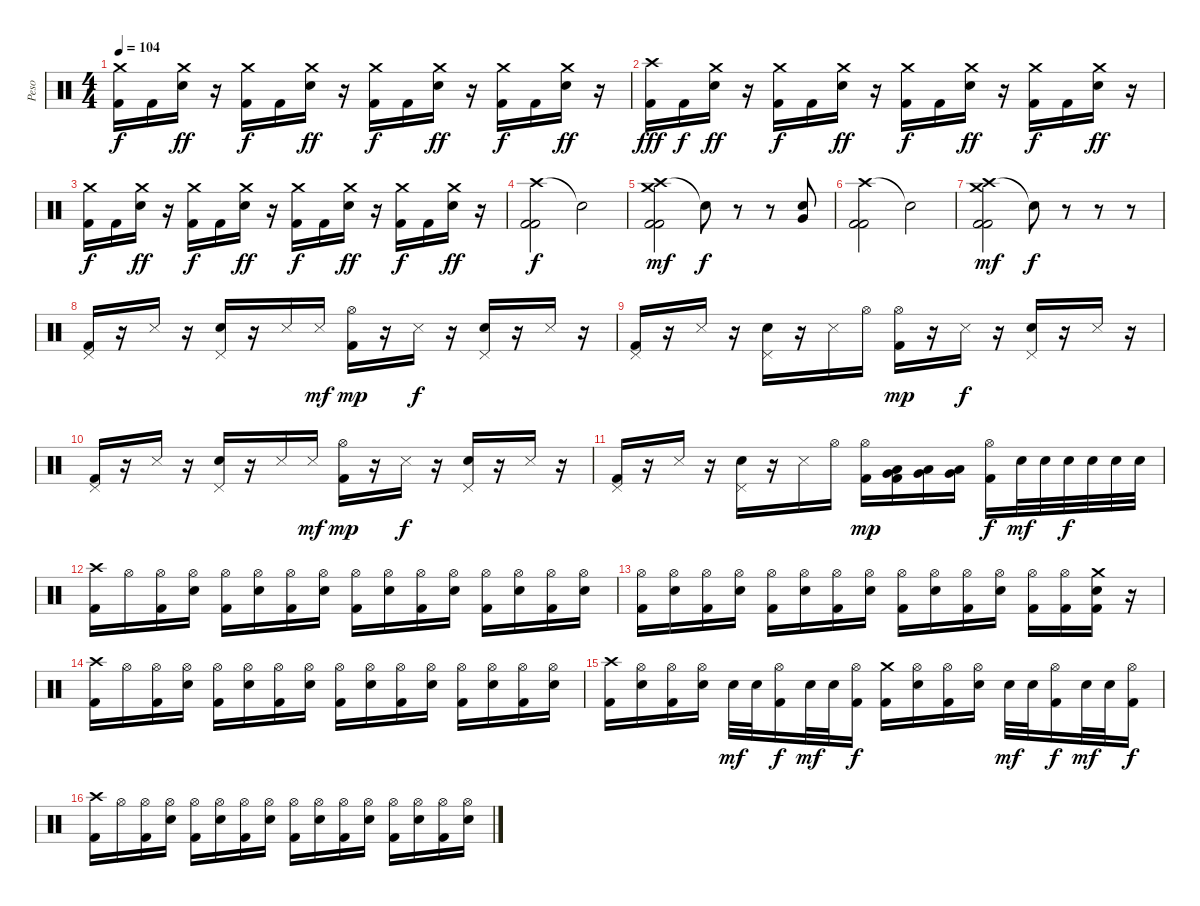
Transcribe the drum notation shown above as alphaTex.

\track ("Peso" "Peso") {instrument percussion}
\staff {score}
\articulation defaults
\ts (4 4)
\tempo 104
\clef neutral
\ks c
("Crash medium (hit)" "Kick (hit) 2").16{dy f} "Kick (hit) 2".16 ("Crash medium (hit)" "Electric Snare (hit)").16{dy ff} r.16 ("Crash medium (hit)" "Kick (hit) 2").16{dy f} "Kick (hit) 2".16 ("Crash medium (hit)" "Electric Snare (hit)").16{dy ff} r.16 ("Crash medium (hit)" "Kick (hit) 2").16{dy f} "Kick (hit) 2".16 ("Crash medium (hit)" "Electric Snare (hit)").16{dy ff} r.16 ("Crash medium (hit)" "Kick (hit) 2").16{dy f} "Kick (hit) 2".16 ("Crash medium (hit)" "Electric Snare (hit)").16{dy ff} r.16 |
("Crash high (hit)" "Kick (hit) 2").16{dy fff} "Kick (hit) 2".16{dy f} ("Crash medium (hit)" "Electric Snare (hit)").16{dy ff} r.16 ("Crash medium (hit)" "Kick (hit) 2").16{dy f} "Kick (hit) 2".16 ("Crash medium (hit)" "Electric Snare (hit)").16{dy ff} r.16 ("Crash medium (hit)" "Kick (hit) 2").16{dy f} "Kick (hit) 2".16 ("Crash medium (hit)" "Electric Snare (hit)").16{dy ff} r.16 ("Crash medium (hit)" "Kick (hit) 2").16{dy f} "Kick (hit) 2".16 ("Crash medium (hit)" "Electric Snare (hit)").16{dy ff} r.16 |
("Crash medium (hit)" "Kick (hit) 2").16{dy f} "Kick (hit) 2".16 ("Crash medium (hit)" "Electric Snare (hit)").16{dy ff} r.16 ("Crash medium (hit)" "Kick (hit) 2").16{dy f} "Kick (hit) 2".16 ("Crash medium (hit)" "Electric Snare (hit)").16{dy ff} r.16 ("Crash medium (hit)" "Kick (hit) 2").16{dy f} "Kick (hit) 2".16 ("Crash medium (hit)" "Electric Snare (hit)").16{dy ff} r.16 ("Crash medium (hit)" "Kick (hit) 2").16{dy f} "Kick (hit) 2".16 ("Crash medium (hit)" "Electric Snare (hit)").16{dy ff} r.16 |
("Crash high (hit)" "Kick (hit) 2" "Kick (hit) 2").2{dy f} "Snare (hit)"{t}.2 |
("Crash high (hit)" "Crash medium (hit)" "Kick (hit) 2" "Kick (hit) 2").2{dy mf} "Snare (hit)"{t}.8{dy f} r.8 r.8 ("Electric Snare (hit)" "Very Low Tom (hit)").8 |
("Crash high (hit)" "Kick (hit) 2" "Kick (hit) 2").2 "Snare (hit)"{t}.2 |
("Crash high (hit)" "Crash medium (hit)" "Kick (hit) 2" "Kick (hit) 2").2{dy mf} "Snare (hit)"{t}.8{dy f} r.8 r.8 r.8 |
("Pedal Hi-Hat (hit)" "Kick (hit) 2").16 r.16 "Metronome (hit)".16 r.16 ("Pedal Hi-Hat (hit)" "Electric Snare (hit)").16 r.16 "Metronome (hit)".16 "Metronome (hit)".16{dy mf} ("Hi-Hat (open)" "Kick (hit) 2").16{dy mp} r.16 "Metronome (hit)".16{dy f} r.16 ("Pedal Hi-Hat (hit)" "Electric Snare (hit)").16 r.16 "Metronome (hit)".16 r.16 |
("Pedal Hi-Hat (hit)" "Kick (hit) 2").16 r.16 "Metronome (hit)".16 r.16 ("Pedal Hi-Hat (hit)" "Electric Snare (hit)").16 r.16 "Metronome (hit)".16 "Hi-Hat (open)".16 ("Hi-Hat (open)" "Kick (hit) 2").16{dy mp} r.16 "Metronome (hit)".16{dy f} r.16 ("Pedal Hi-Hat (hit)" "Electric Snare (hit)").16 r.16 "Metronome (hit)".16 r.16 |
("Pedal Hi-Hat (hit)" "Kick (hit) 2").16 r.16 "Metronome (hit)".16 r.16 ("Pedal Hi-Hat (hit)" "Electric Snare (hit)").16 r.16 "Metronome (hit)".16 "Metronome (hit)".16{dy mf} ("Hi-Hat (open)" "Kick (hit) 2").16{dy mp} r.16 "Metronome (hit)".16{dy f} r.16 ("Pedal Hi-Hat (hit)" "Electric Snare (hit)").16 r.16 "Metronome (hit)".16 r.16 |
("Pedal Hi-Hat (hit)" "Kick (hit) 2").16 r.16 "Metronome (hit)".16 r.16 ("Pedal Hi-Hat (hit)" "Electric Snare (hit)").16 r.16 "Metronome (hit)".16 "Hi-Hat (open)".16 ("Hi-Hat (open)" "Kick (hit) 2").16{dy mp} ("Low Tom (hit)" "Very Low Tom (hit)" "Kick (hit) 2").16 ("Low Tom (hit)" "Very Low Tom (hit)").16 ("Low Tom (hit)" "Very Low Tom (hit)").16 ("Hi-Hat (open)" "Kick (hit) 2").16{dy f} "Electric Snare (hit)".32{dy mf} "Electric Snare (hit)".32 "Electric Snare (hit)".32{dy f} "Electric Snare (hit)".32 "Electric Snare (hit)".32 "Electric Snare (hit)".32 |
("Crash high (hit)" "Kick (hit) 2").16 "Hi-Hat (open)".16 ("Hi-Hat (open)" "Kick (hit) 2").16 ("Hi-Hat (open)" "Electric Snare (hit)").16 ("Hi-Hat (open)" "Kick (hit) 2").16 ("Hi-Hat (open)" "Electric Snare (hit)").16 ("Hi-Hat (open)" "Kick (hit) 2").16 ("Hi-Hat (open)" "Electric Snare (hit)").16 ("Hi-Hat (open)" "Kick (hit) 2").16 ("Hi-Hat (open)" "Electric Snare (hit)").16 ("Hi-Hat (open)" "Kick (hit) 2").16 ("Hi-Hat (open)" "Electric Snare (hit)").16 ("Hi-Hat (open)" "Kick (hit) 2").16 ("Hi-Hat (open)" "Electric Snare (hit)").16 ("Hi-Hat (open)" "Kick (hit) 2").16 ("Hi-Hat (open)" "Electric Snare (hit)").16 |
("Hi-Hat (open)" "Kick (hit) 2").16 ("Hi-Hat (open)" "Electric Snare (hit)").16 ("Hi-Hat (open)" "Kick (hit) 2").16 ("Hi-Hat (open)" "Electric Snare (hit)").16 ("Hi-Hat (open)" "Kick (hit) 2").16 ("Hi-Hat (open)" "Electric Snare (hit)").16 ("Hi-Hat (open)" "Kick (hit) 2").16 ("Hi-Hat (open)" "Electric Snare (hit)").16 ("Hi-Hat (open)" "Kick (hit) 2").16 ("Hi-Hat (open)" "Electric Snare (hit)").16 ("Hi-Hat (open)" "Kick (hit) 2").16 ("Hi-Hat (open)" "Electric Snare (hit)").16 ("Hi-Hat (open)" "Kick (hit) 2").16 ("Hi-Hat (open)" "Kick (hit) 2").16 ("Crash medium (hit)" "Electric Snare (hit)" "Kick (hit) 2").16 r.16 |
("Crash high (hit)" "Kick (hit) 2").16 "Hi-Hat (open)".16 ("Hi-Hat (open)" "Kick (hit) 2").16 ("Hi-Hat (open)" "Electric Snare (hit)").16 ("Hi-Hat (open)" "Kick (hit) 2").16 ("Hi-Hat (open)" "Electric Snare (hit)").16 ("Hi-Hat (open)" "Kick (hit) 2").16 ("Hi-Hat (open)" "Electric Snare (hit)").16 ("Hi-Hat (open)" "Kick (hit) 2").16 ("Hi-Hat (open)" "Electric Snare (hit)").16 ("Hi-Hat (open)" "Kick (hit) 2").16 ("Hi-Hat (open)" "Electric Snare (hit)").16 ("Hi-Hat (open)" "Kick (hit) 2").16 ("Hi-Hat (open)" "Electric Snare (hit)").16 ("Hi-Hat (open)" "Kick (hit) 2").16 ("Hi-Hat (open)" "Electric Snare (hit)").16 |
("Crash high (hit)" "Kick (hit) 2").16 ("Hi-Hat (open)" "Electric Snare (hit)").16 ("Hi-Hat (open)" "Kick (hit) 2").16 ("Hi-Hat (open)" "Electric Snare (hit)").16 "Electric Snare (hit)".32{dy mf} "Electric Snare (hit)".32 ("Hi-Hat (open)" "Kick (hit) 2").16{dy f} "Electric Snare (hit)".32{dy mf} "Electric Snare (hit)".32 ("Hi-Hat (open)" "Kick (hit) 2").16{dy f} ("Crash medium (hit)" "Kick (hit) 2").16 ("Hi-Hat (open)" "Electric Snare (hit)").16 ("Hi-Hat (open)" "Kick (hit) 2").16 ("Hi-Hat (open)" "Electric Snare (hit)").16 "Electric Snare (hit)".32{dy mf} "Electric Snare (hit)".32 ("Hi-Hat (open)" "Kick (hit) 2").16{dy f} "Electric Snare (hit)".32{dy mf} "Electric Snare (hit)".32 ("Hi-Hat (open)" "Kick (hit) 2").16{dy f} |
("Crash high (hit)" "Kick (hit) 2").16 "Hi-Hat (open)".16 ("Hi-Hat (open)" "Kick (hit) 2").16 ("Hi-Hat (open)" "Electric Snare (hit)").16 ("Hi-Hat (open)" "Kick (hit) 2").16 ("Hi-Hat (open)" "Electric Snare (hit)").16 ("Hi-Hat (open)" "Kick (hit) 2").16 ("Hi-Hat (open)" "Electric Snare (hit)").16 ("Hi-Hat (open)" "Kick (hit) 2").16 ("Hi-Hat (open)" "Electric Snare (hit)").16 ("Hi-Hat (open)" "Kick (hit) 2").16 ("Hi-Hat (open)" "Electric Snare (hit)").16 ("Hi-Hat (open)" "Kick (hit) 2").16 ("Hi-Hat (open)" "Electric Snare (hit)").16 ("Hi-Hat (open)" "Kick (hit) 2").16 ("Hi-Hat (open)" "Electric Snare (hit)").16
